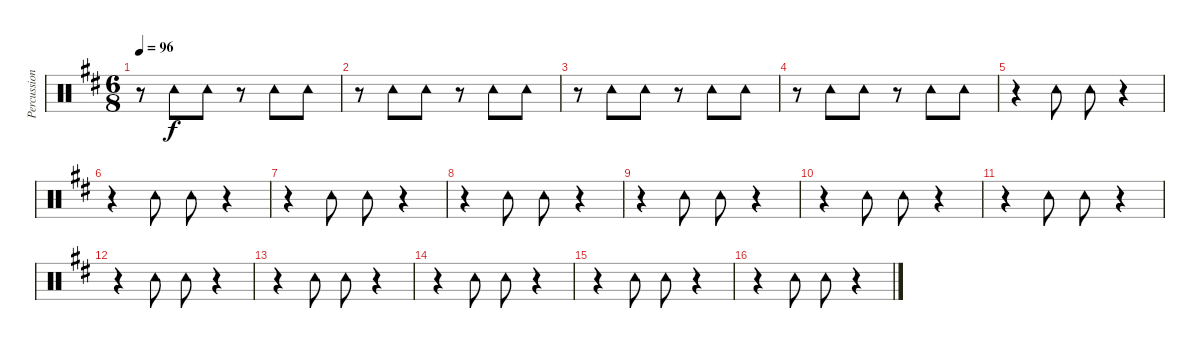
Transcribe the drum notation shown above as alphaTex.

\track ("Percussion" "Percussion") {instrument percussion}
\staff {score}
\articulation defaults
\ts (6 8)
\tempo 96
\clef neutral
\ks bminor
r.8{dy f} "Tambourine (hit)".8 "Tambourine (hit)".8 r.8 "Tambourine (hit)".8 "Tambourine (hit)".8 |
r.8 "Tambourine (hit)".8 "Tambourine (hit)".8 r.8 "Tambourine (hit)".8 "Tambourine (hit)".8 |
r.8 "Tambourine (hit)".8 "Tambourine (hit)".8 r.8 "Tambourine (hit)".8 "Tambourine (hit)".8 |
r.8 "Tambourine (hit)".8 "Tambourine (hit)".8 r.8 "Tambourine (hit)".8 "Tambourine (hit)".8 |
r.4 "Tambourine (hit)".8 "Tambourine (hit)".8 r.4 |
r.4 "Tambourine (hit)".8 "Tambourine (hit)".8 r.4 |
r.4 "Tambourine (hit)".8 "Tambourine (hit)".8 r.4 |
r.4 "Tambourine (hit)".8 "Tambourine (hit)".8 r.4 |
r.4 "Tambourine (hit)".8 "Tambourine (hit)".8 r.4 |
r.4 "Tambourine (hit)".8 "Tambourine (hit)".8 r.4 |
r.4 "Tambourine (hit)".8 "Tambourine (hit)".8 r.4 |
r.4 "Tambourine (hit)".8 "Tambourine (hit)".8 r.4 |
r.4 "Tambourine (hit)".8 "Tambourine (hit)".8 r.4 |
r.4 "Tambourine (hit)".8 "Tambourine (hit)".8 r.4 |
r.4 "Tambourine (hit)".8 "Tambourine (hit)".8 r.4 |
r.4 "Tambourine (hit)".8 "Tambourine (hit)".8 r.4
